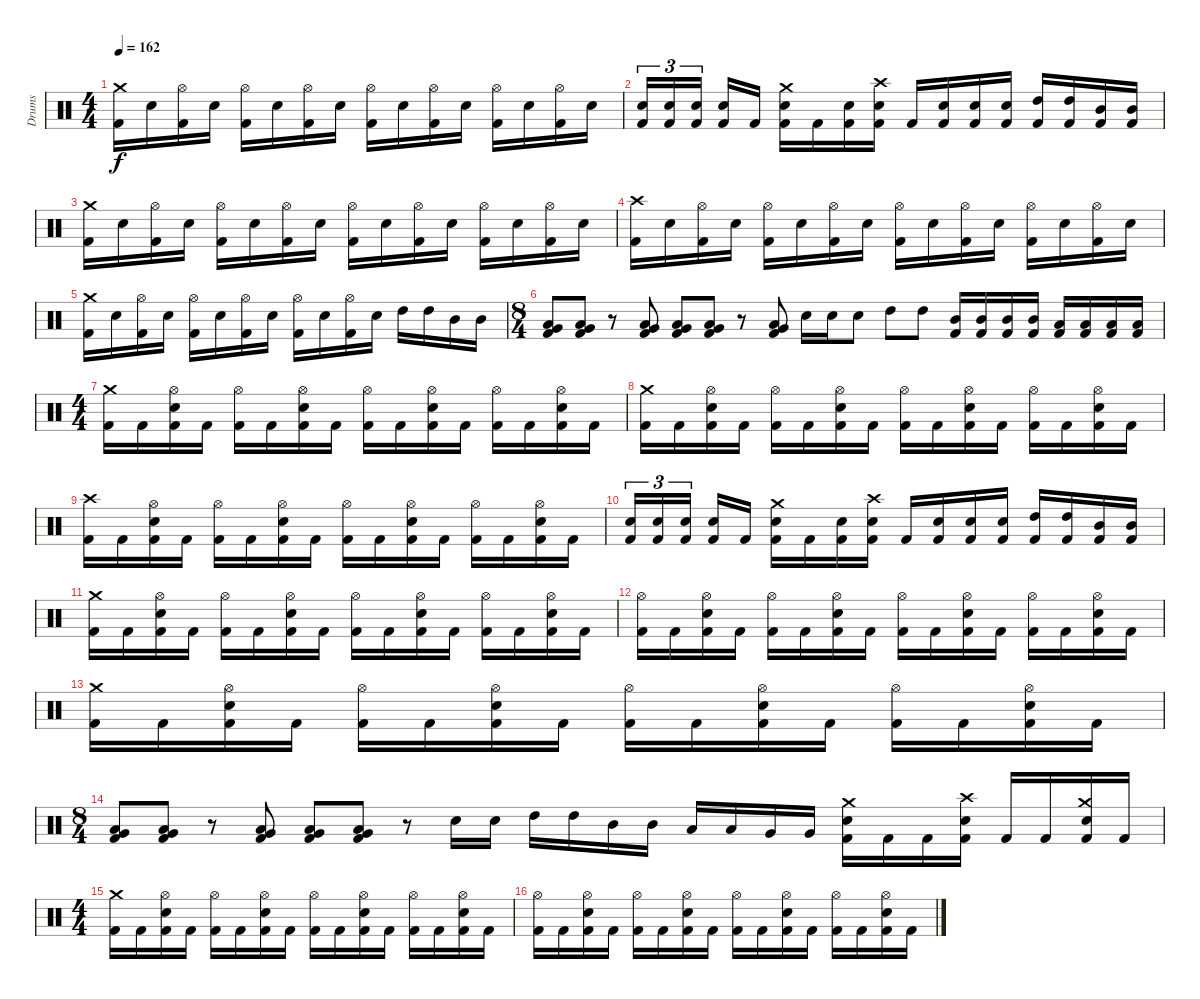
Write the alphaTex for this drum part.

\track ("Drums" "Drums") {instrument percussion}
\staff {score}
\articulation defaults
\ts (4 4)
\tempo 162
\clef neutral
\ks c
("Kick (hit) 2" "Crash medium (hit)").16{dy f} "Electric Snare (hit)".16 ("Kick (hit) 2" "Hi-Hat (open)").16 "Electric Snare (hit)".16 ("Kick (hit) 2" "Hi-Hat (open)").16 "Electric Snare (hit)".16 ("Kick (hit) 2" "Hi-Hat (open)").16 "Electric Snare (hit)".16 ("Kick (hit) 2" "Hi-Hat (open)").16 "Electric Snare (hit)".16 ("Kick (hit) 2" "Hi-Hat (open)").16 "Electric Snare (hit)".16 ("Kick (hit) 2" "Hi-Hat (open)").16 "Electric Snare (hit)".16 ("Kick (hit) 2" "Hi-Hat (open)").16 "Electric Snare (hit)".16 |
("Kick (hit) 2" "Electric Snare (hit)").16{tu (3 2)} ("Kick (hit) 2" "Electric Snare (hit)").16{tu (3 2)} ("Kick (hit) 2" "Electric Snare (hit)").16{tu (3 2)} ("Kick (hit) 2" "Electric Snare (hit)").16 "Kick (hit) 2".16 ("Kick (hit) 2" "Electric Snare (hit)" "Crash medium (hit)").16 "Kick (hit) 2".16 ("Kick (hit) 2" "Electric Snare (hit)").16 ("Kick (hit) 2" "Electric Snare (hit)" "Crash high (hit)").16 "Kick (hit) 2".16 ("Kick (hit) 2" "Electric Snare (hit)").16 ("Kick (hit) 2" "Electric Snare (hit)").16 ("Kick (hit) 2" "Electric Snare (hit)").16 ("Kick (hit) 2" "High Tom (hit)").16 ("Kick (hit) 2" "High Tom (hit)").16 ("Kick (hit) 2" "Mid Tom (hit)").16 ("Kick (hit) 2" "Mid Tom (hit)").16 |
("Kick (hit) 2" "Crash medium (hit)").16 "Electric Snare (hit)".16 ("Kick (hit) 2" "Hi-Hat (open)").16 "Electric Snare (hit)".16 ("Kick (hit) 2" "Hi-Hat (open)").16 "Electric Snare (hit)".16 ("Kick (hit) 2" "Hi-Hat (open)").16 "Electric Snare (hit)".16 ("Kick (hit) 2" "Hi-Hat (open)").16 "Electric Snare (hit)".16 ("Kick (hit) 2" "Hi-Hat (open)").16 "Electric Snare (hit)".16 ("Kick (hit) 2" "Hi-Hat (open)").16 "Electric Snare (hit)".16 ("Kick (hit) 2" "Hi-Hat (open)").16 "Electric Snare (hit)".16 |
("Kick (hit) 2" "Crash high (hit)").16 "Electric Snare (hit)".16 ("Kick (hit) 2" "Hi-Hat (open)").16 "Electric Snare (hit)".16 ("Kick (hit) 2" "Hi-Hat (open)").16 "Electric Snare (hit)".16 ("Kick (hit) 2" "Hi-Hat (open)").16 "Electric Snare (hit)".16 ("Kick (hit) 2" "Hi-Hat (open)").16 "Electric Snare (hit)".16 ("Kick (hit) 2" "Hi-Hat (open)").16 "Electric Snare (hit)".16 ("Kick (hit) 2" "Hi-Hat (open)").16 "Electric Snare (hit)".16 ("Kick (hit) 2" "Hi-Hat (open)").16 "Electric Snare (hit)".16 |
("Kick (hit) 2" "Crash medium (hit)").16 "Electric Snare (hit)".16 ("Kick (hit) 2" "Hi-Hat (open)").16 "Electric Snare (hit)".16 ("Kick (hit) 2" "Hi-Hat (open)").16 "Electric Snare (hit)".16 ("Kick (hit) 2" "Hi-Hat (open)").16 "Electric Snare (hit)".16 ("Kick (hit) 2" "Hi-Hat (open)").16 "Electric Snare (hit)".16 ("Kick (hit) 2" "Hi-Hat (open)").16 "Electric Snare (hit)".16 "High Tom (hit)".16 "High Tom (hit)".16 "Mid Tom (hit)".16 "Mid Tom (hit)".16 |
\ts (8 4)
("Kick (hit) 2" "Low Tom (hit)" "Very Low Tom (hit)").8 ("Kick (hit) 2" "Low Tom (hit)" "Very Low Tom (hit)").8 r.8 ("Kick (hit) 2" "Low Tom (hit)" "Very Low Tom (hit)").8 ("Kick (hit) 2" "Low Tom (hit)" "Very Low Tom (hit)").8 ("Kick (hit) 2" "Low Tom (hit)" "Very Low Tom (hit)").8 r.8 ("Kick (hit) 2" "Low Tom (hit)" "Very Low Tom (hit)").8 "Electric Snare (hit)".16 "Electric Snare (hit)".16 "Electric Snare (hit)".8 "High Tom (hit)".8 "High Tom (hit)".8 ("Kick (hit) 2" "Mid Tom (hit)").16 ("Kick (hit) 2" "Mid Tom (hit)").16 ("Kick (hit) 2" "Mid Tom (hit)").16 ("Kick (hit) 2" "Mid Tom (hit)").16 ("Kick (hit) 2" "Low Tom (hit)").16 ("Kick (hit) 2" "Low Tom (hit)").16 ("Kick (hit) 2" "Low Tom (hit)").16 ("Kick (hit) 2" "Low Tom (hit)").16 |
\ts (4 4)
("Kick (hit) 2" "Crash medium (hit)").16 "Kick (hit) 2".16 ("Kick (hit) 2" "Electric Snare (hit)" "Hi-Hat (open)").16 "Kick (hit) 2".16 ("Kick (hit) 2" "Hi-Hat (open)").16 "Kick (hit) 2".16 ("Kick (hit) 2" "Electric Snare (hit)" "Hi-Hat (open)").16 "Kick (hit) 2".16 ("Kick (hit) 2" "Hi-Hat (open)").16 "Kick (hit) 2".16 ("Kick (hit) 2" "Electric Snare (hit)" "Hi-Hat (open)").16 "Kick (hit) 2".16 ("Kick (hit) 2" "Hi-Hat (open)").16 "Kick (hit) 2".16 ("Kick (hit) 2" "Electric Snare (hit)" "Hi-Hat (open)").16 "Kick (hit) 2".16 |
("Kick (hit) 2" "Crash medium (hit)").16 "Kick (hit) 2".16 ("Kick (hit) 2" "Electric Snare (hit)" "Hi-Hat (open)").16 "Kick (hit) 2".16 ("Kick (hit) 2" "Hi-Hat (open)").16 "Kick (hit) 2".16 ("Kick (hit) 2" "Electric Snare (hit)" "Hi-Hat (open)").16 "Kick (hit) 2".16 ("Kick (hit) 2" "Hi-Hat (open)").16 "Kick (hit) 2".16 ("Kick (hit) 2" "Electric Snare (hit)" "Hi-Hat (open)").16 "Kick (hit) 2".16 ("Kick (hit) 2" "Hi-Hat (open)").16 "Kick (hit) 2".16 ("Kick (hit) 2" "Electric Snare (hit)" "Hi-Hat (open)").16 "Kick (hit) 2".16 |
("Kick (hit) 2" "Crash high (hit)").16 "Kick (hit) 2".16 ("Kick (hit) 2" "Electric Snare (hit)" "Hi-Hat (open)").16 "Kick (hit) 2".16 ("Kick (hit) 2" "Hi-Hat (open)").16 "Kick (hit) 2".16 ("Kick (hit) 2" "Electric Snare (hit)" "Hi-Hat (open)").16 "Kick (hit) 2".16 ("Kick (hit) 2" "Hi-Hat (open)").16 "Kick (hit) 2".16 ("Kick (hit) 2" "Electric Snare (hit)" "Hi-Hat (open)").16 "Kick (hit) 2".16 ("Kick (hit) 2" "Hi-Hat (open)").16 "Kick (hit) 2".16 ("Kick (hit) 2" "Electric Snare (hit)" "Hi-Hat (open)").16 "Kick (hit) 2".16 |
("Kick (hit) 2" "Electric Snare (hit)").16{tu (3 2)} ("Kick (hit) 2" "Electric Snare (hit)").16{tu (3 2)} ("Kick (hit) 2" "Electric Snare (hit)").16{tu (3 2)} ("Kick (hit) 2" "Electric Snare (hit)").16 "Kick (hit) 2".16 ("Kick (hit) 2" "Electric Snare (hit)" "Crash medium (hit)").16 "Kick (hit) 2".16 ("Kick (hit) 2" "Electric Snare (hit)").16 ("Kick (hit) 2" "Electric Snare (hit)" "Crash high (hit)").16 "Kick (hit) 2".16 ("Kick (hit) 2" "Electric Snare (hit)").16 ("Kick (hit) 2" "Electric Snare (hit)").16 ("Kick (hit) 2" "Electric Snare (hit)").16 ("Kick (hit) 2" "High Tom (hit)").16 ("Kick (hit) 2" "High Tom (hit)").16 ("Kick (hit) 2" "Mid Tom (hit)").16 ("Kick (hit) 2" "Mid Tom (hit)").16 |
("Kick (hit) 2" "Crash medium (hit)").16 "Kick (hit) 2".16 ("Kick (hit) 2" "Electric Snare (hit)" "Hi-Hat (open)").16 "Kick (hit) 2".16 ("Kick (hit) 2" "Hi-Hat (open)").16 "Kick (hit) 2".16 ("Kick (hit) 2" "Electric Snare (hit)" "Hi-Hat (open)").16 "Kick (hit) 2".16 ("Kick (hit) 2" "Hi-Hat (open)").16 "Kick (hit) 2".16 ("Kick (hit) 2" "Electric Snare (hit)" "Hi-Hat (open)").16 "Kick (hit) 2".16 ("Kick (hit) 2" "Hi-Hat (open)").16 "Kick (hit) 2".16 ("Kick (hit) 2" "Electric Snare (hit)" "Hi-Hat (open)").16 "Kick (hit) 2".16 |
("Kick (hit) 2" "Hi-Hat (open)").16 "Kick (hit) 2".16 ("Kick (hit) 2" "Electric Snare (hit)" "Hi-Hat (open)").16 "Kick (hit) 2".16 ("Kick (hit) 2" "Hi-Hat (open)").16 "Kick (hit) 2".16 ("Kick (hit) 2" "Electric Snare (hit)" "Hi-Hat (open)").16 "Kick (hit) 2".16 ("Kick (hit) 2" "Hi-Hat (open)").16 "Kick (hit) 2".16 ("Kick (hit) 2" "Electric Snare (hit)" "Hi-Hat (open)").16 "Kick (hit) 2".16 ("Kick (hit) 2" "Hi-Hat (open)").16 "Kick (hit) 2".16 ("Kick (hit) 2" "Electric Snare (hit)" "Hi-Hat (open)").16 "Kick (hit) 2".16 |
("Kick (hit) 2" "Crash medium (hit)").16 "Kick (hit) 2".16 ("Kick (hit) 2" "Electric Snare (hit)" "Hi-Hat (open)").16 "Kick (hit) 2".16 ("Kick (hit) 2" "Hi-Hat (open)").16 "Kick (hit) 2".16 ("Kick (hit) 2" "Electric Snare (hit)" "Hi-Hat (open)").16 "Kick (hit) 2".16 ("Kick (hit) 2" "Hi-Hat (open)").16 "Kick (hit) 2".16 ("Kick (hit) 2" "Electric Snare (hit)" "Hi-Hat (open)").16 "Kick (hit) 2".16 ("Kick (hit) 2" "Hi-Hat (open)").16 "Kick (hit) 2".16 ("Kick (hit) 2" "Electric Snare (hit)" "Hi-Hat (open)").16 "Kick (hit) 2".16 |
\ts (8 4)
("Kick (hit) 2" "Low Tom (hit)" "Very Low Tom (hit)").8 ("Kick (hit) 2" "Low Tom (hit)" "Very Low Tom (hit)").8 r.8 ("Kick (hit) 2" "Low Tom (hit)" "Very Low Tom (hit)").8 ("Kick (hit) 2" "Low Tom (hit)" "Very Low Tom (hit)").8 ("Kick (hit) 2" "Low Tom (hit)" "Very Low Tom (hit)").8 r.8 "Electric Snare (hit)".16 "Electric Snare (hit)".16 "High Tom (hit)".16 "High Tom (hit)".16 "Mid Tom (hit)".16 "Mid Tom (hit)".16 "Low Tom (hit)".16 "Low Tom (hit)".16 "Very Low Tom (hit)".16 "Very Low Tom (hit)".16 ("Kick (hit) 2" "Electric Snare (hit)" "Crash medium (hit)").16 "Kick (hit) 2".16 "Kick (hit) 2".16 ("Kick (hit) 2" "Electric Snare (hit)" "Crash high (hit)").16 "Kick (hit) 2".16 "Kick (hit) 2".16 ("Kick (hit) 2" "Electric Snare (hit)" "Crash medium (hit)").16 "Kick (hit) 2".16 |
\ts (4 4)
("Kick (hit) 2" "Crash medium (hit)").16 "Kick (hit) 2".16 ("Kick (hit) 2" "Electric Snare (hit)" "Hi-Hat (open)").16 "Kick (hit) 2".16 ("Kick (hit) 2" "Hi-Hat (open)").16 "Kick (hit) 2".16 ("Kick (hit) 2" "Electric Snare (hit)" "Hi-Hat (open)").16 "Kick (hit) 2".16 ("Kick (hit) 2" "Hi-Hat (open)").16 "Kick (hit) 2".16 ("Kick (hit) 2" "Electric Snare (hit)" "Hi-Hat (open)").16 "Kick (hit) 2".16 ("Kick (hit) 2" "Hi-Hat (open)").16 "Kick (hit) 2".16 ("Kick (hit) 2" "Electric Snare (hit)" "Hi-Hat (open)").16 "Kick (hit) 2".16 |
("Kick (hit) 2" "Hi-Hat (open)").16 "Kick (hit) 2".16 ("Kick (hit) 2" "Electric Snare (hit)" "Hi-Hat (open)").16 "Kick (hit) 2".16 ("Kick (hit) 2" "Hi-Hat (open)").16 "Kick (hit) 2".16 ("Kick (hit) 2" "Electric Snare (hit)" "Hi-Hat (open)").16 "Kick (hit) 2".16 ("Kick (hit) 2" "Hi-Hat (open)").16 "Kick (hit) 2".16 ("Kick (hit) 2" "Electric Snare (hit)" "Hi-Hat (open)").16 "Kick (hit) 2".16 ("Kick (hit) 2" "Hi-Hat (open)").16 "Kick (hit) 2".16 ("Kick (hit) 2" "Electric Snare (hit)" "Hi-Hat (open)").16 "Kick (hit) 2".16
